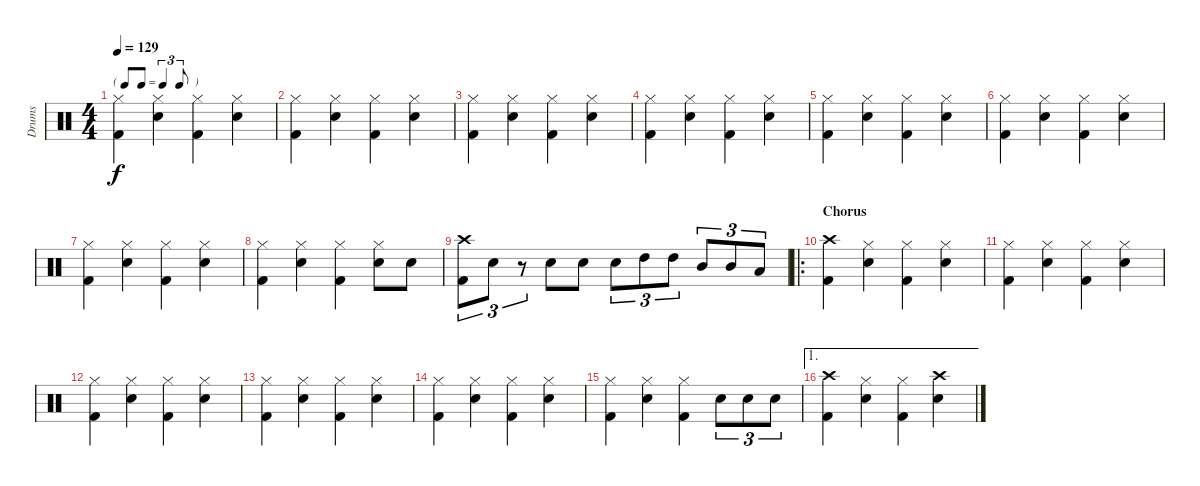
\track ("Drums" "Drums") {instrument percussion}
\staff {score}
\articulation defaults
\ts (4 4)
\tf triplet8th
\tempo 129
\clef neutral
\ks c
("Kick (hit) 2" "Hi-Hat (closed)").4{dy f} ("Snare (hit) 2" "Hi-Hat (closed)").4 ("Kick (hit) 2" "Hi-Hat (closed)").4 ("Snare (hit) 2" "Hi-Hat (closed)").4 |
("Kick (hit) 2" "Hi-Hat (closed)").4 ("Snare (hit) 2" "Hi-Hat (closed)").4 ("Kick (hit) 2" "Hi-Hat (closed)").4 ("Snare (hit) 2" "Hi-Hat (closed)").4 |
("Kick (hit) 2" "Hi-Hat (closed)").4 ("Snare (hit) 2" "Hi-Hat (closed)").4 ("Kick (hit) 2" "Hi-Hat (closed)").4 ("Snare (hit) 2" "Hi-Hat (closed)").4 |
("Kick (hit) 2" "Hi-Hat (closed)").4 ("Snare (hit) 2" "Hi-Hat (closed)").4 ("Kick (hit) 2" "Hi-Hat (closed)").4 ("Snare (hit) 2" "Hi-Hat (closed)").4 |
("Kick (hit) 2" "Hi-Hat (closed)").4 ("Snare (hit) 2" "Hi-Hat (closed)").4 ("Kick (hit) 2" "Hi-Hat (closed)").4 ("Snare (hit) 2" "Hi-Hat (closed)").4 |
("Kick (hit) 2" "Hi-Hat (closed)").4 ("Snare (hit) 2" "Hi-Hat (closed)").4 ("Kick (hit) 2" "Hi-Hat (closed)").4 ("Snare (hit) 2" "Hi-Hat (closed)").4 |
("Kick (hit) 2" "Hi-Hat (closed)").4 ("Snare (hit) 2" "Hi-Hat (closed)").4 ("Kick (hit) 2" "Hi-Hat (closed)").4 ("Snare (hit) 2" "Hi-Hat (closed)").4 |
("Kick (hit) 2" "Hi-Hat (closed)").4 ("Snare (hit) 2" "Hi-Hat (closed)").4 ("Kick (hit) 2" "Hi-Hat (closed)").4 ("Snare (hit) 2" "Hi-Hat (closed)").8 "Snare (hit) 2".8 |
("Kick (hit) 2" "Crash high (hit)").8{tu (3 2)} "Snare (hit) 2".8{tu (3 2)} r.8{tu (3 2)} "Snare (hit) 2".8 "Snare (hit) 2".8 "Snare (hit) 2".8{tu (3 2)} "High Tom (hit)".8{tu (3 2)} "High Tom (hit)".8{tu (3 2)} "Mid Tom (hit)".8{tu (3 2)} "Mid Tom (hit)".8{tu (3 2)} "Low Tom (hit)".8{tu (3 2)} |
\ro
\section ("" "Chorus")
("Kick (hit) 2" "Crash high (hit)").4 ("Snare (hit) 2" "Hi-Hat (closed)").4 ("Kick (hit) 2" "Hi-Hat (closed)").4 ("Snare (hit) 2" "Hi-Hat (closed)").4 |
("Kick (hit) 2" "Hi-Hat (closed)").4 ("Snare (hit) 2" "Hi-Hat (closed)").4 ("Kick (hit) 2" "Hi-Hat (closed)").4 ("Snare (hit) 2" "Hi-Hat (closed)").4 |
("Kick (hit) 2" "Hi-Hat (closed)").4 ("Snare (hit) 2" "Hi-Hat (closed)").4 ("Kick (hit) 2" "Hi-Hat (closed)").4 ("Snare (hit) 2" "Hi-Hat (closed)").4 |
("Kick (hit) 2" "Hi-Hat (closed)").4 ("Snare (hit) 2" "Hi-Hat (closed)").4 ("Kick (hit) 2" "Hi-Hat (closed)").4 ("Snare (hit) 2" "Hi-Hat (closed)").4 |
("Kick (hit) 2" "Hi-Hat (closed)").4 ("Snare (hit) 2" "Hi-Hat (closed)").4 ("Kick (hit) 2" "Hi-Hat (closed)").4 ("Snare (hit) 2" "Hi-Hat (closed)").4 |
("Kick (hit) 2" "Hi-Hat (closed)").4 ("Snare (hit) 2" "Hi-Hat (closed)").4 ("Kick (hit) 2" "Hi-Hat (closed)").4 "Snare (hit) 2".8{tu (3 2)} "Snare (hit) 2".8{tu (3 2)} "Snare (hit) 2".8{tu (3 2)} |
\ae 1
("Kick (hit) 2" "Crash high (hit)").4 ("Snare (hit) 2" "Hi-Hat (closed)").4 ("Kick (hit) 2" "Hi-Hat (closed)").4 ("Crash high (hit)" "Snare (hit) 2").4
